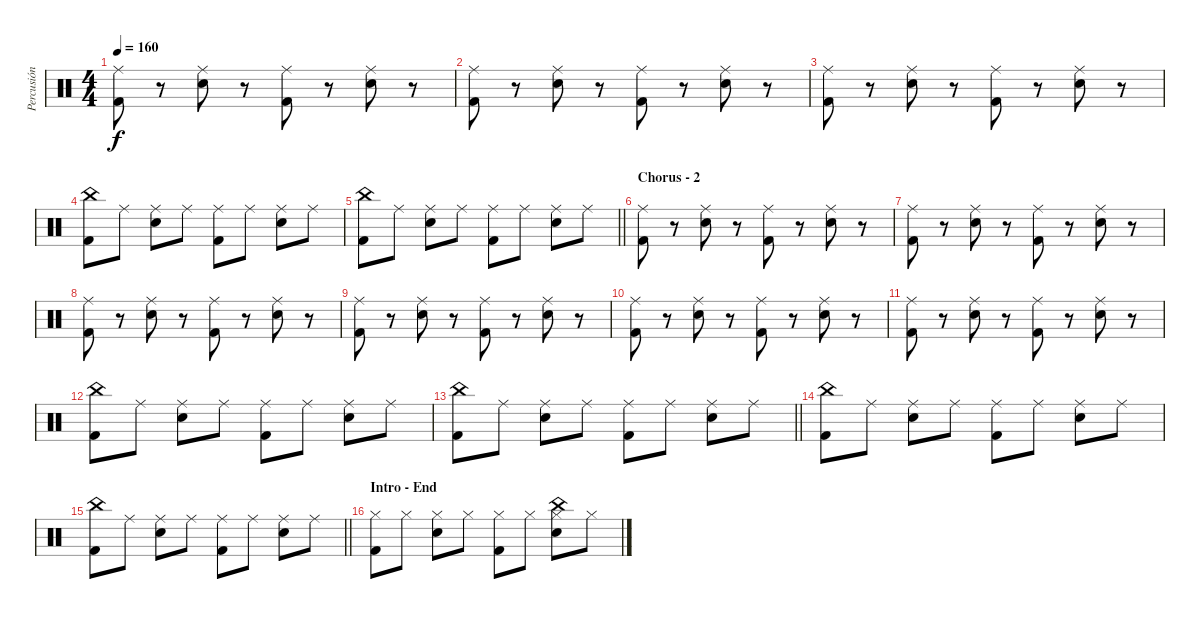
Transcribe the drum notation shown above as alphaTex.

\track ("Percusión" "Percusión") {instrument percussion}
\staff {score}
\articulation defaults
\ts (4 4)
\tempo 160
\clef neutral
\ks c
("Ride (middle)" "Kick (hit) 2").8{dy f} r.8 ("Ride (middle)" "Electric Snare (hit)").8 r.8 ("Ride (middle)" "Kick (hit) 2").8 r.8 ("Ride (middle)" "Electric Snare (hit)").8 r.8 |
("Ride (middle)" "Kick (hit) 2").8 r.8 ("Ride (middle)" "Electric Snare (hit)").8 r.8 ("Ride (middle)" "Kick (hit) 2").8 r.8 ("Ride (middle)" "Electric Snare (hit)").8 r.8 |
("Ride (middle)" "Kick (hit) 2").8 r.8 ("Ride (middle)" "Electric Snare (hit)").8 r.8 ("Ride (middle)" "Kick (hit) 2").8 r.8 ("Ride (middle)" "Electric Snare (hit)").8 r.8 |
("China (hit)" "Kick (hit) 2").8 "Ride (middle)".8 ("Ride (middle)" "Electric Snare (hit)").8 "Ride (middle)".8 ("Ride (middle)" "Kick (hit) 2").8 "Ride (middle)".8 ("Ride (middle)" "Electric Snare (hit)").8 "Ride (middle)".8 |
\barLineRight lightlight
("China (hit)" "Kick (hit) 2").8 "Ride (middle)".8 ("Ride (middle)" "Electric Snare (hit)").8 "Ride (middle)".8 ("Ride (middle)" "Kick (hit) 2").8 "Ride (middle)".8 ("Ride (middle)" "Electric Snare (hit)").8 "Ride (middle)".8 |
\section ("" "Chorus - 2")
("Ride (middle)" "Kick (hit) 2").8 r.8 ("Ride (middle)" "Electric Snare (hit)").8 r.8 ("Ride (middle)" "Kick (hit) 2").8 r.8 ("Ride (middle)" "Electric Snare (hit)").8 r.8 |
("Ride (middle)" "Kick (hit) 2").8 r.8 ("Ride (middle)" "Electric Snare (hit)").8 r.8 ("Ride (middle)" "Kick (hit) 2").8 r.8 ("Ride (middle)" "Electric Snare (hit)").8 r.8 |
("Ride (middle)" "Kick (hit) 2").8 r.8 ("Ride (middle)" "Electric Snare (hit)").8 r.8 ("Ride (middle)" "Kick (hit) 2").8 r.8 ("Ride (middle)" "Electric Snare (hit)").8 r.8 |
("Ride (middle)" "Kick (hit) 2").8 r.8 ("Ride (middle)" "Electric Snare (hit)").8 r.8 ("Ride (middle)" "Kick (hit) 2").8 r.8 ("Ride (middle)" "Electric Snare (hit)").8 r.8 |
("Ride (middle)" "Kick (hit) 2").8 r.8 ("Ride (middle)" "Electric Snare (hit)").8 r.8 ("Ride (middle)" "Kick (hit) 2").8 r.8 ("Ride (middle)" "Electric Snare (hit)").8 r.8 |
("Ride (middle)" "Kick (hit) 2").8 r.8 ("Ride (middle)" "Electric Snare (hit)").8 r.8 ("Ride (middle)" "Kick (hit) 2").8 r.8 ("Ride (middle)" "Electric Snare (hit)").8 r.8 |
("China (hit)" "Kick (hit) 2").8 "Ride (middle)".8 ("Ride (middle)" "Electric Snare (hit)").8 "Ride (middle)".8 ("Ride (middle)" "Kick (hit) 2").8 "Ride (middle)".8 ("Ride (middle)" "Electric Snare (hit)").8 "Ride (middle)".8 |
\barLineRight lightlight
("China (hit)" "Kick (hit) 2").8 "Ride (middle)".8 ("Ride (middle)" "Electric Snare (hit)").8 "Ride (middle)".8 ("Ride (middle)" "Kick (hit) 2").8 "Ride (middle)".8 ("Ride (middle)" "Electric Snare (hit)").8 "Ride (middle)".8 |
("China (hit)" "Kick (hit) 2").8 "Ride (middle)".8 ("Ride (middle)" "Electric Snare (hit)").8 "Ride (middle)".8 ("Ride (middle)" "Kick (hit) 2").8 "Ride (middle)".8 ("Ride (middle)" "Electric Snare (hit)").8 "Ride (middle)".8 |
\barLineRight lightlight
("China (hit)" "Kick (hit) 2").8 "Ride (middle)".8 ("Ride (middle)" "Electric Snare (hit)").8 "Ride (middle)".8 ("Ride (middle)" "Kick (hit) 2").8 "Ride (middle)".8 ("Ride (middle)" "Electric Snare (hit)").8 "Ride (middle)".8 |
\section ("" "Intro - End")
("Hi-Hat (closed)" "Kick (hit) 2").8 "Hi-Hat (closed)".8 ("Hi-Hat (closed)" "Electric Snare (hit)").8 "Hi-Hat (closed)".8 ("Hi-Hat (closed)" "Kick (hit) 2").8 "Hi-Hat (closed)".8 ("Hi-Hat (closed)" "Electric Snare (hit)" "China (hit)").8 "Hi-Hat (closed)".8
